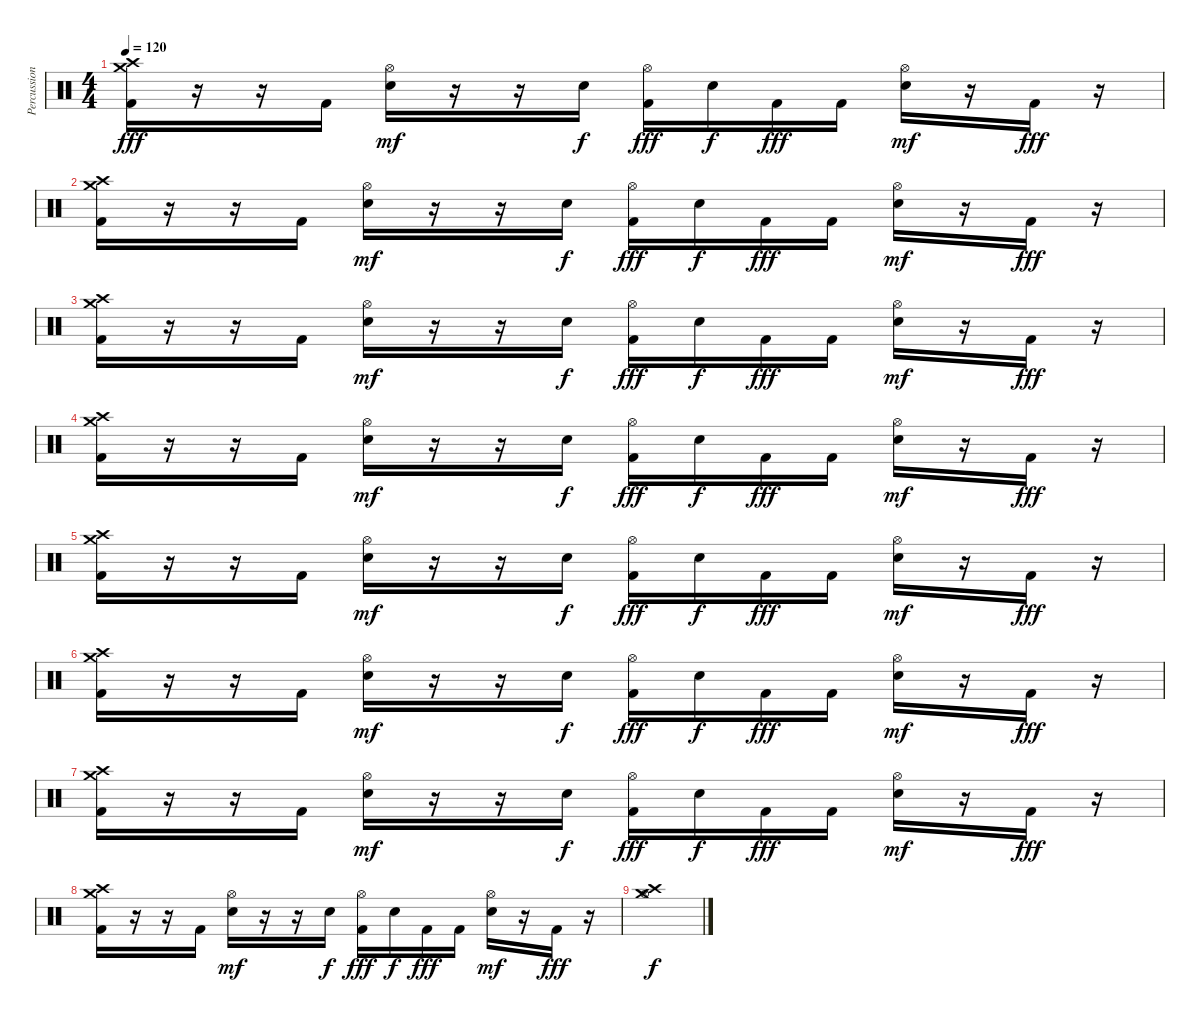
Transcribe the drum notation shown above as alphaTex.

\track ("Percussion" "Percussion") {instrument percussion}
\staff {score}
\articulation defaults
\ts (4 4)
\tempo 120
\clef neutral
\ks c
("Crash medium (hit)" "Crash high (hit)" "Kick (hit) 2").16{dy fff} r.16 r.16 "Kick (hit) 2".16 ("Hi-Hat (open)" "Snare (hit) 2").16{dy mf} r.16 r.16 "Snare (hit) 2".16{dy f} ("Hi-Hat (open)" "Kick (hit) 2").16{dy fff} "Snare (hit) 2".16{dy f} "Kick (hit) 2".16{dy fff} "Kick (hit) 2".16 ("Hi-Hat (open)" "Snare (hit) 2").16{dy mf} r.16 "Kick (hit) 2".16{dy fff} r.16 |
("Crash medium (hit)" "Crash high (hit)" "Kick (hit) 2").16 r.16 r.16 "Kick (hit) 2".16 ("Hi-Hat (open)" "Snare (hit) 2").16{dy mf} r.16 r.16 "Snare (hit) 2".16{dy f} ("Hi-Hat (open)" "Kick (hit) 2").16{dy fff} "Snare (hit) 2".16{dy f} "Kick (hit) 2".16{dy fff} "Kick (hit) 2".16 ("Hi-Hat (open)" "Snare (hit) 2").16{dy mf} r.16 "Kick (hit) 2".16{dy fff} r.16 |
("Crash medium (hit)" "Crash high (hit)" "Kick (hit) 2").16 r.16 r.16 "Kick (hit) 2".16 ("Hi-Hat (open)" "Snare (hit) 2").16{dy mf} r.16 r.16 "Snare (hit) 2".16{dy f} ("Hi-Hat (open)" "Kick (hit) 2").16{dy fff} "Snare (hit) 2".16{dy f} "Kick (hit) 2".16{dy fff} "Kick (hit) 2".16 ("Hi-Hat (open)" "Snare (hit) 2").16{dy mf} r.16 "Kick (hit) 2".16{dy fff} r.16 |
("Crash medium (hit)" "Crash high (hit)" "Kick (hit) 2").16 r.16 r.16 "Kick (hit) 2".16 ("Hi-Hat (open)" "Snare (hit) 2").16{dy mf} r.16 r.16 "Snare (hit) 2".16{dy f} ("Hi-Hat (open)" "Kick (hit) 2").16{dy fff} "Snare (hit) 2".16{dy f} "Kick (hit) 2".16{dy fff} "Kick (hit) 2".16 ("Hi-Hat (open)" "Snare (hit) 2").16{dy mf} r.16 "Kick (hit) 2".16{dy fff} r.16 |
("Crash medium (hit)" "Crash high (hit)" "Kick (hit) 2").16 r.16 r.16 "Kick (hit) 2".16 ("Hi-Hat (open)" "Snare (hit) 2").16{dy mf} r.16 r.16 "Snare (hit) 2".16{dy f} ("Hi-Hat (open)" "Kick (hit) 2").16{dy fff} "Snare (hit) 2".16{dy f} "Kick (hit) 2".16{dy fff} "Kick (hit) 2".16 ("Hi-Hat (open)" "Snare (hit) 2").16{dy mf} r.16 "Kick (hit) 2".16{dy fff} r.16 |
("Crash medium (hit)" "Crash high (hit)" "Kick (hit) 2").16 r.16 r.16 "Kick (hit) 2".16 ("Hi-Hat (open)" "Snare (hit) 2").16{dy mf} r.16 r.16 "Snare (hit) 2".16{dy f} ("Hi-Hat (open)" "Kick (hit) 2").16{dy fff} "Snare (hit) 2".16{dy f} "Kick (hit) 2".16{dy fff} "Kick (hit) 2".16 ("Hi-Hat (open)" "Snare (hit) 2").16{dy mf} r.16 "Kick (hit) 2".16{dy fff} r.16 |
("Crash medium (hit)" "Crash high (hit)" "Kick (hit) 2").16 r.16 r.16 "Kick (hit) 2".16 ("Hi-Hat (open)" "Snare (hit) 2").16{dy mf} r.16 r.16 "Snare (hit) 2".16{dy f} ("Hi-Hat (open)" "Kick (hit) 2").16{dy fff} "Snare (hit) 2".16{dy f} "Kick (hit) 2".16{dy fff} "Kick (hit) 2".16 ("Hi-Hat (open)" "Snare (hit) 2").16{dy mf} r.16 "Kick (hit) 2".16{dy fff} r.16 |
("Crash medium (hit)" "Crash high (hit)" "Kick (hit) 2").16 r.16 r.16 "Kick (hit) 2".16 ("Hi-Hat (open)" "Snare (hit) 2").16{dy mf} r.16 r.16 "Snare (hit) 2".16{dy f} ("Hi-Hat (open)" "Kick (hit) 2").16{dy fff} "Snare (hit) 2".16{dy f} "Kick (hit) 2".16{dy fff} "Kick (hit) 2".16 ("Hi-Hat (open)" "Snare (hit) 2").16{dy mf} r.16 "Kick (hit) 2".16{dy fff} r.16 |
("Hi-Hat (open)" "Crash medium (hit)" "Crash high (hit)").1{dy f}
